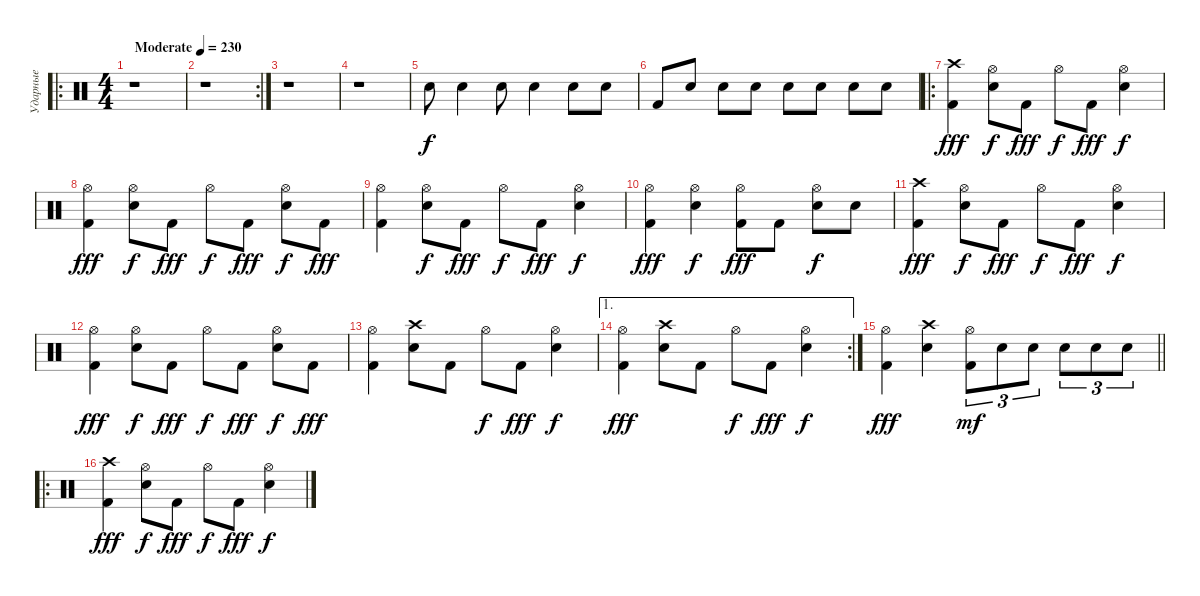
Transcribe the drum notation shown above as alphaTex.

\track ("Ударные" "Ударные") {instrument percussion}
\staff
\articulation defaults
\ro
\ts (4 4)
\tempo (230 "Moderate")
\clef neutral
\ks c
r.1{dy f} |
\rc 2
r.1 |
r.1 |
r.1 |
"Snare (hit) 2".8 "Snare (hit) 2".4 "Snare (hit) 2".8 "Snare (hit) 2".4 "Snare (hit) 2".8 "Snare (hit) 2".8 |
"Kick (hit) 2".8 "Snare (hit) 2".8 "Snare (hit) 2".8 "Snare (hit) 2".8 "Snare (hit) 2".8 "Snare (hit) 2".8 "Snare (hit) 2".8 "Snare (hit) 2".8 |
\ro
("Kick (hit) 2" "Crash high (hit)").4{dy fff} ("Snare (hit) 2" "Hi-Hat (open)").8{dy f} "Kick (hit) 2".8{dy fff} "Hi-Hat (open)".8{dy f} "Kick (hit) 2".8{dy fff} ("Snare (hit) 2" "Hi-Hat (open)").4{dy f} |
("Kick (hit) 2" "Hi-Hat (open)").4{dy fff} ("Snare (hit) 2" "Hi-Hat (open)").8{dy f} "Kick (hit) 2".8{dy fff} "Hi-Hat (open)".8{dy f} "Kick (hit) 2".8{dy fff} ("Snare (hit) 2" "Hi-Hat (open)").8{dy f} "Kick (hit) 2".8{dy fff} |
("Kick (hit) 2" "Hi-Hat (open)").4 ("Snare (hit) 2" "Hi-Hat (open)").8{dy f} "Kick (hit) 2".8{dy fff} "Hi-Hat (open)".8{dy f} "Kick (hit) 2".8{dy fff} ("Snare (hit) 2" "Hi-Hat (open)").4{dy f} |
("Kick (hit) 2" "Hi-Hat (open)").4{dy fff} ("Snare (hit) 2" "Hi-Hat (open)").4{dy f} ("Kick (hit) 2" "Hi-Hat (open)").8{dy fff} "Kick (hit) 2".8 ("Snare (hit) 2" "Hi-Hat (open)").8{dy f} "Snare (hit) 2".8 |
("Kick (hit) 2" "Crash high (hit)").4{dy fff} ("Snare (hit) 2" "Hi-Hat (open)").8{dy f} "Kick (hit) 2".8{dy fff} "Hi-Hat (open)".8{dy f} "Kick (hit) 2".8{dy fff} ("Snare (hit) 2" "Hi-Hat (open)").4{dy f} |
("Kick (hit) 2" "Hi-Hat (open)").4{dy fff} ("Snare (hit) 2" "Hi-Hat (open)").8{dy f} "Kick (hit) 2".8{dy fff} "Hi-Hat (open)".8{dy f} "Kick (hit) 2".8{dy fff} ("Snare (hit) 2" "Hi-Hat (open)").8{dy f} "Kick (hit) 2".8{dy fff} |
("Kick (hit) 2" "Hi-Hat (open)").4 ("Snare (hit) 2" "Crash high (hit)").8 "Kick (hit) 2".8 "Hi-Hat (open)".8{dy f} "Kick (hit) 2".8{dy fff} ("Snare (hit) 2" "Hi-Hat (open)").4{dy f} |
\ae 1
\rc 2
("Kick (hit) 2" "Hi-Hat (open)").4{dy fff} ("Snare (hit) 2" "Crash high (hit)").8 "Kick (hit) 2".8 "Hi-Hat (open)".8{dy f} "Kick (hit) 2".8{dy fff} ("Snare (hit) 2" "Hi-Hat (open)").4{dy f} |
\barLineRight lightlight
("Kick (hit) 2" "Hi-Hat (open)").4{dy fff} ("Snare (hit) 2" "Crash high (hit)").4 ("Kick (hit) 2" "Hi-Hat (open)").8{tu (3 2) dy mf} "Snare (hit) 2".8{tu (3 2)} "Snare (hit) 2".8{tu (3 2)} "Snare (hit) 2".8{tu (3 2)} "Snare (hit) 2".8{tu (3 2)} "Snare (hit) 2".8{tu (3 2)} |
\ro
("Kick (hit) 2" "Crash high (hit)").4{dy fff} ("Snare (hit) 2" "Hi-Hat (open)").8{dy f} "Kick (hit) 2".8{dy fff} "Hi-Hat (open)".8{dy f} "Kick (hit) 2".8{dy fff} ("Snare (hit) 2" "Hi-Hat (open)").4{dy f}
